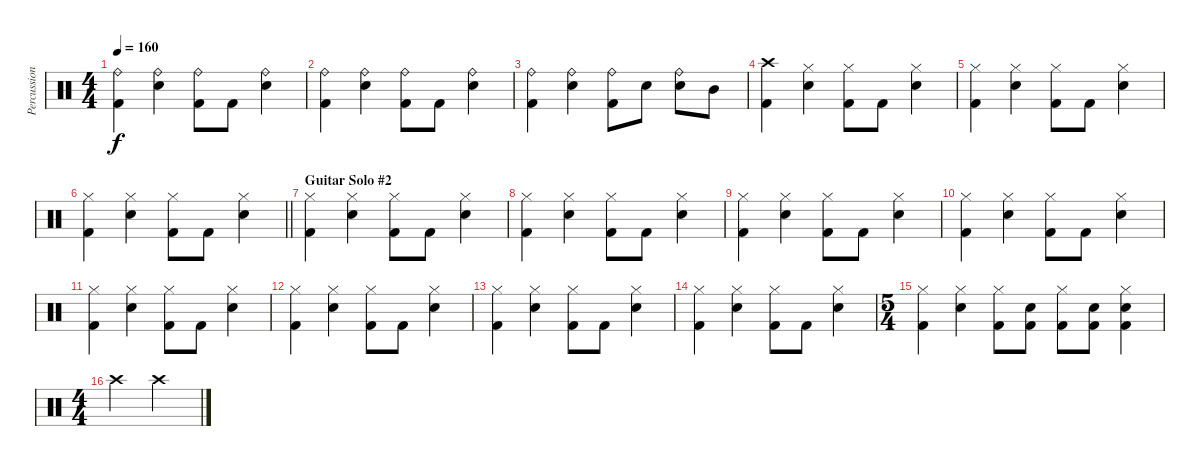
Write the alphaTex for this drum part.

\track ("Percussion" "Percussion") {instrument percussion}
\staff {score}
\articulation defaults
\ts (4 4)
\tempo 160
\clef neutral
\ks c
("Ride (bell)" "Kick (hit) 2").4{dy f} ("Ride (bell)" "Electric Snare (hit)").4 ("Ride (bell)" "Kick (hit) 2").8 "Kick (hit) 2".8 ("Ride (bell)" "Electric Snare (hit)").4 |
("Ride (bell)" "Kick (hit) 2").4 ("Ride (bell)" "Electric Snare (hit)").4 ("Ride (bell)" "Kick (hit) 2").8 "Kick (hit) 2".8 ("Ride (bell)" "Electric Snare (hit)").4 |
("Ride (bell)" "Kick (hit) 2").4 ("Ride (bell)" "Electric Snare (hit)").4 ("Ride (bell)" "Kick (hit) 2").8 "Electric Snare (hit)".8 ("Ride (bell)" "Electric Snare (hit)").8 "Mid Tom (hit)".8 |
("Crash high (hit)" "Kick (hit) 2").4 ("Hi-Hat (closed)" "Electric Snare (hit)").4 ("Hi-Hat (closed)" "Kick (hit) 2").8 "Kick (hit) 2".8 ("Hi-Hat (closed)" "Electric Snare (hit)").4 |
("Hi-Hat (closed)" "Kick (hit) 2").4 ("Hi-Hat (closed)" "Electric Snare (hit)").4 ("Hi-Hat (closed)" "Kick (hit) 2").8 "Kick (hit) 2".8 ("Hi-Hat (closed)" "Electric Snare (hit)").4 |
\barLineRight lightlight
("Hi-Hat (closed)" "Kick (hit) 2").4 ("Hi-Hat (closed)" "Electric Snare (hit)").4 ("Hi-Hat (closed)" "Kick (hit) 2").8 "Kick (hit) 2".8 ("Hi-Hat (closed)" "Electric Snare (hit)").4 |
\section ("" "Guitar Solo #2")
("Hi-Hat (closed)" "Kick (hit) 2").4 ("Hi-Hat (closed)" "Electric Snare (hit)").4 ("Hi-Hat (closed)" "Kick (hit) 2").8 "Kick (hit) 2".8 ("Hi-Hat (closed)" "Electric Snare (hit)").4 |
("Hi-Hat (closed)" "Kick (hit) 2").4 ("Hi-Hat (closed)" "Electric Snare (hit)").4 ("Hi-Hat (closed)" "Kick (hit) 2").8 "Kick (hit) 2".8 ("Hi-Hat (closed)" "Electric Snare (hit)").4 |
("Hi-Hat (closed)" "Kick (hit) 2").4 ("Hi-Hat (closed)" "Electric Snare (hit)").4 ("Hi-Hat (closed)" "Kick (hit) 2").8 "Kick (hit) 2".8 ("Hi-Hat (closed)" "Electric Snare (hit)").4 |
("Hi-Hat (closed)" "Kick (hit) 2").4 ("Hi-Hat (closed)" "Electric Snare (hit)").4 ("Hi-Hat (closed)" "Kick (hit) 2").8 "Kick (hit) 2".8 ("Hi-Hat (closed)" "Electric Snare (hit)").4 |
("Hi-Hat (closed)" "Kick (hit) 2").4 ("Hi-Hat (closed)" "Electric Snare (hit)").4 ("Hi-Hat (closed)" "Kick (hit) 2").8 "Kick (hit) 2".8 ("Hi-Hat (closed)" "Electric Snare (hit)").4 |
("Hi-Hat (closed)" "Kick (hit) 2").4 ("Hi-Hat (closed)" "Electric Snare (hit)").4 ("Hi-Hat (closed)" "Kick (hit) 2").8 "Kick (hit) 2".8 ("Hi-Hat (closed)" "Electric Snare (hit)").4 |
("Hi-Hat (closed)" "Kick (hit) 2").4 ("Hi-Hat (closed)" "Electric Snare (hit)").4 ("Hi-Hat (closed)" "Kick (hit) 2").8 "Kick (hit) 2".8 ("Hi-Hat (closed)" "Electric Snare (hit)").4 |
("Hi-Hat (closed)" "Kick (hit) 2").4 ("Hi-Hat (closed)" "Electric Snare (hit)").4 ("Hi-Hat (closed)" "Kick (hit) 2").8 "Kick (hit) 2".8 ("Hi-Hat (closed)" "Electric Snare (hit)").4 |
\ts (5 4)
("Hi-Hat (closed)" "Kick (hit) 2").4 ("Hi-Hat (closed)" "Electric Snare (hit)").4 ("Hi-Hat (closed)" "Kick (hit) 2").8 ("Electric Snare (hit)" "Kick (hit) 2").8 ("Hi-Hat (closed)" "Kick (hit) 2").8 ("Electric Snare (hit)" "Kick (hit) 2").8 ("Hi-Hat (closed)" "Electric Snare (hit)" "Kick (hit) 2").4 |
\ts (4 4)
"Crash high (hit)".2 "Crash high (hit)".2
